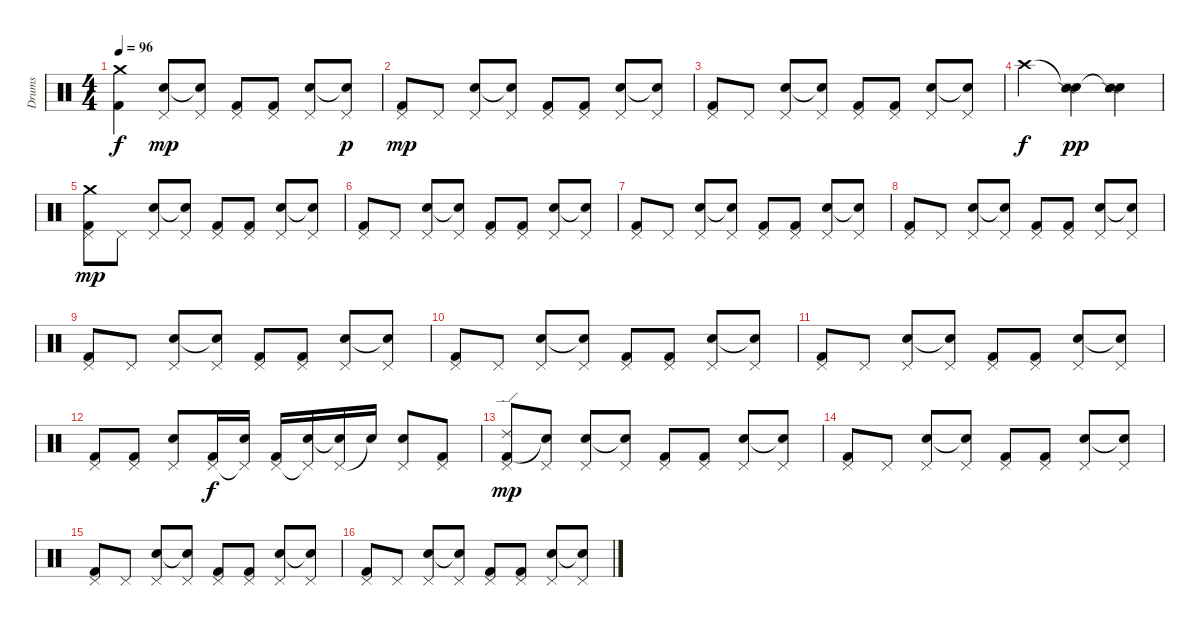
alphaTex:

\track ("Drums" "Drums") {instrument percussion}
\staff {score}
\articulation defaults
\ts (4 4)
\tempo 96
\clef neutral
\ks c
("Crash medium (hit)" "Kick (hit) 2").4{dy f} ("Pedal Hi-Hat (hit)" "Electric Snare (hit)").8{dy mp} ("Pedal Hi-Hat (hit)" "Snare (hit)"{t}).8 ("Pedal Hi-Hat (hit)" "Kick (hit) 2").8 ("Pedal Hi-Hat (hit)" "Kick (hit) 2").8 ("Pedal Hi-Hat (hit)" "Electric Snare (hit)").8 ("Pedal Hi-Hat (hit)" "Snare (hit)"{t}).8{dy p} |
("Pedal Hi-Hat (hit)" "Kick (hit) 2").8{dy mp} "Pedal Hi-Hat (hit)".8 ("Pedal Hi-Hat (hit)" "Electric Snare (hit)").8 ("Pedal Hi-Hat (hit)" "Snare (hit)"{t}).8 ("Pedal Hi-Hat (hit)" "Kick (hit) 2").8 ("Pedal Hi-Hat (hit)" "Kick (hit) 2").8 ("Pedal Hi-Hat (hit)" "Electric Snare (hit)").8 ("Pedal Hi-Hat (hit)" "Snare (hit)"{t}).8 |
("Pedal Hi-Hat (hit)" "Kick (hit) 2").8 "Pedal Hi-Hat (hit)".8 ("Pedal Hi-Hat (hit)" "Electric Snare (hit)").8 ("Pedal Hi-Hat (hit)" "Snare (hit)"{t}).8 ("Pedal Hi-Hat (hit)" "Kick (hit) 2").8 ("Pedal Hi-Hat (hit)" "Kick (hit) 2").8 ("Pedal Hi-Hat (hit)" "Electric Snare (hit)").8 ("Pedal Hi-Hat (hit)" "Snare (hit)"{t}).8 |
"Crash high (hit)".2{dy f} ("Snare (hit)"{t} "Snare (side stick) 2").4{dy pp} ("Snare (hit)"{t} "Snare (side stick) 2").4 |
("Pedal Hi-Hat (hit)" "Kick (hit) 2" "Crash medium (hit)").8{dy mp} "Pedal Hi-Hat (hit)".8 ("Pedal Hi-Hat (hit)" "Electric Snare (hit)").8 ("Pedal Hi-Hat (hit)" "Snare (hit)"{t}).8 ("Pedal Hi-Hat (hit)" "Kick (hit) 2").8 ("Pedal Hi-Hat (hit)" "Kick (hit) 2").8 ("Pedal Hi-Hat (hit)" "Electric Snare (hit)").8 ("Pedal Hi-Hat (hit)" "Snare (hit)"{t}).8 |
("Pedal Hi-Hat (hit)" "Kick (hit) 2").8 "Pedal Hi-Hat (hit)".8 ("Pedal Hi-Hat (hit)" "Electric Snare (hit)").8 ("Pedal Hi-Hat (hit)" "Snare (hit)"{t}).8 ("Pedal Hi-Hat (hit)" "Kick (hit) 2").8 ("Pedal Hi-Hat (hit)" "Kick (hit) 2").8 ("Pedal Hi-Hat (hit)" "Electric Snare (hit)").8 ("Pedal Hi-Hat (hit)" "Snare (hit)"{t}).8 |
("Pedal Hi-Hat (hit)" "Kick (hit) 2").8 "Pedal Hi-Hat (hit)".8 ("Pedal Hi-Hat (hit)" "Electric Snare (hit)").8 ("Pedal Hi-Hat (hit)" "Snare (hit)"{t}).8 ("Pedal Hi-Hat (hit)" "Kick (hit) 2").8 ("Pedal Hi-Hat (hit)" "Kick (hit) 2").8 ("Pedal Hi-Hat (hit)" "Electric Snare (hit)").8 ("Pedal Hi-Hat (hit)" "Snare (hit)"{t}).8 |
("Pedal Hi-Hat (hit)" "Kick (hit) 2").8 "Pedal Hi-Hat (hit)".8 ("Pedal Hi-Hat (hit)" "Electric Snare (hit)").8 ("Pedal Hi-Hat (hit)" "Snare (hit)"{t}).8 ("Pedal Hi-Hat (hit)" "Kick (hit) 2").8 ("Pedal Hi-Hat (hit)" "Kick (hit) 2").8 ("Pedal Hi-Hat (hit)" "Electric Snare (hit)").8 ("Pedal Hi-Hat (hit)" "Snare (hit)"{t}).8 |
("Pedal Hi-Hat (hit)" "Kick (hit) 2").8 "Pedal Hi-Hat (hit)".8 ("Pedal Hi-Hat (hit)" "Electric Snare (hit)").8 ("Pedal Hi-Hat (hit)" "Snare (hit)"{t}).8 ("Pedal Hi-Hat (hit)" "Kick (hit) 2").8 ("Pedal Hi-Hat (hit)" "Kick (hit) 2").8 ("Pedal Hi-Hat (hit)" "Electric Snare (hit)").8 ("Pedal Hi-Hat (hit)" "Snare (hit)"{t}).8 |
("Pedal Hi-Hat (hit)" "Kick (hit) 2").8 "Pedal Hi-Hat (hit)".8 ("Pedal Hi-Hat (hit)" "Electric Snare (hit)").8 ("Pedal Hi-Hat (hit)" "Snare (hit)"{t}).8 ("Pedal Hi-Hat (hit)" "Kick (hit) 2").8 ("Pedal Hi-Hat (hit)" "Kick (hit) 2").8 ("Pedal Hi-Hat (hit)" "Electric Snare (hit)").8 ("Pedal Hi-Hat (hit)" "Snare (hit)"{t}).8 |
("Pedal Hi-Hat (hit)" "Kick (hit) 2").8 "Pedal Hi-Hat (hit)".8 ("Pedal Hi-Hat (hit)" "Electric Snare (hit)").8 ("Pedal Hi-Hat (hit)" "Snare (hit)"{t}).8 ("Pedal Hi-Hat (hit)" "Kick (hit) 2").8 ("Pedal Hi-Hat (hit)" "Kick (hit) 2").8 ("Pedal Hi-Hat (hit)" "Electric Snare (hit)").8 ("Pedal Hi-Hat (hit)" "Snare (hit)"{t}).8 |
("Pedal Hi-Hat (hit)" "Kick (hit) 2").8 ("Pedal Hi-Hat (hit)" "Kick (hit) 2").8 ("Pedal Hi-Hat (hit)" "Electric Snare (hit)").8 ("Pedal Hi-Hat (hit)" "Kick (hit) 2").16{dy f} ("Pedal Hi-Hat (hit)"{t} "Electric Snare (hit)").16 ("Pedal Hi-Hat (hit)" "Kick (hit) 2").16 ("Pedal Hi-Hat (hit)"{t} "Electric Snare (hit)").16 ("Pedal Hi-Hat (hit)" "Snare (hit)"{t}).16 "Snare (hit)"{t}.16 ("Pedal Hi-Hat (hit)" "Electric Snare (hit)").8 ("Pedal Hi-Hat (hit)" "Kick (hit) 2").8 |
("Pedal Hi-Hat (hit)" "Kick (hit) 2" "Ride (edge) 2").8{dy mp} ("Pedal Hi-Hat (hit)" "Snare (hit)"{t}).8 ("Pedal Hi-Hat (hit)" "Electric Snare (hit)").8 ("Pedal Hi-Hat (hit)" "Snare (hit)"{t}).8 ("Pedal Hi-Hat (hit)" "Kick (hit) 2").8 ("Pedal Hi-Hat (hit)" "Kick (hit) 2").8 ("Pedal Hi-Hat (hit)" "Electric Snare (hit)").8 ("Pedal Hi-Hat (hit)" "Snare (hit)"{t}).8 |
("Pedal Hi-Hat (hit)" "Kick (hit) 2").8 "Pedal Hi-Hat (hit)".8 ("Pedal Hi-Hat (hit)" "Electric Snare (hit)").8 ("Pedal Hi-Hat (hit)" "Snare (hit)"{t}).8 ("Pedal Hi-Hat (hit)" "Kick (hit) 2").8 ("Pedal Hi-Hat (hit)" "Kick (hit) 2").8 ("Pedal Hi-Hat (hit)" "Electric Snare (hit)").8 ("Pedal Hi-Hat (hit)" "Snare (hit)"{t}).8 |
("Pedal Hi-Hat (hit)" "Kick (hit) 2").8 "Pedal Hi-Hat (hit)".8 ("Pedal Hi-Hat (hit)" "Electric Snare (hit)").8 ("Pedal Hi-Hat (hit)" "Snare (hit)"{t}).8 ("Pedal Hi-Hat (hit)" "Kick (hit) 2").8 ("Pedal Hi-Hat (hit)" "Kick (hit) 2").8 ("Pedal Hi-Hat (hit)" "Electric Snare (hit)").8 ("Pedal Hi-Hat (hit)" "Snare (hit)"{t}).8 |
("Pedal Hi-Hat (hit)" "Kick (hit) 2").8 "Pedal Hi-Hat (hit)".8 ("Pedal Hi-Hat (hit)" "Electric Snare (hit)").8 ("Pedal Hi-Hat (hit)" "Snare (hit)"{t}).8 ("Pedal Hi-Hat (hit)" "Kick (hit) 2").8 ("Pedal Hi-Hat (hit)" "Kick (hit) 2").8 ("Pedal Hi-Hat (hit)" "Electric Snare (hit)").8 ("Pedal Hi-Hat (hit)" "Snare (hit)"{t}).8
